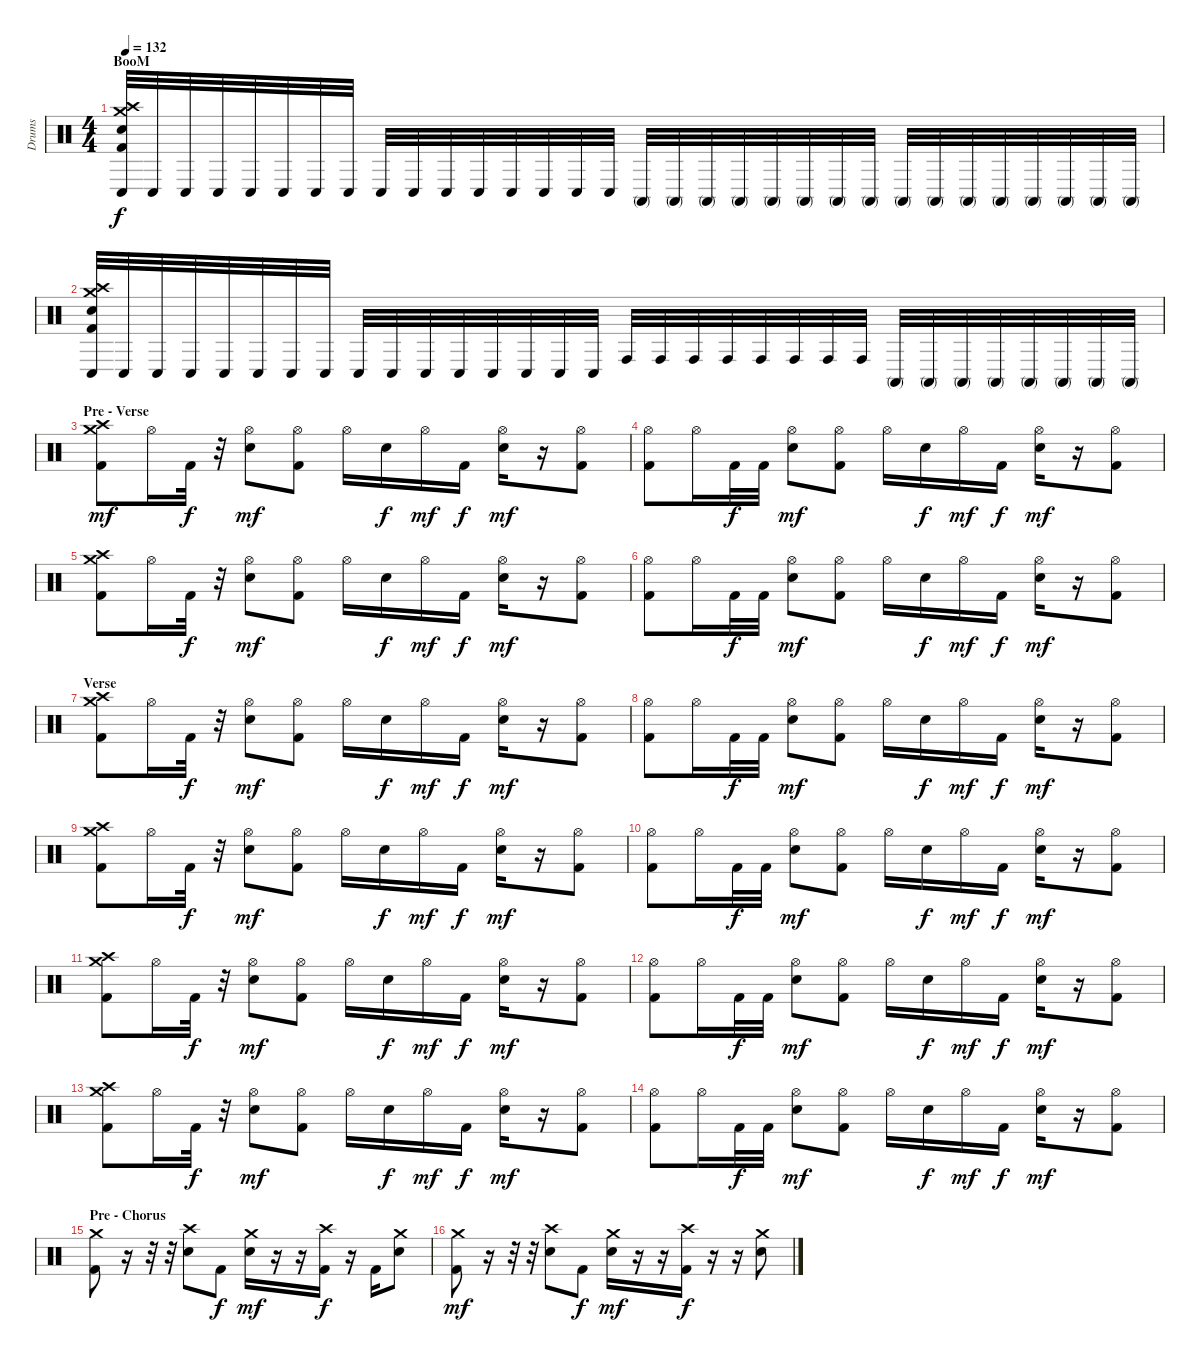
\track ("Drums" "Drums") {instrument percussion}
\staff {score}
\articulation defaults
\ts (4 4)
\section ("" "BooM")
\tempo 132
\clef neutral
\ks c
("Crash medium (hit)" "Crash high (hit)" "Snare (hit) 2" "Conga low (hit)" "Kick (hit) 2").32{dy f} "Conga low (hit)".32 "Conga low (hit)".32 "Conga low (hit)".32 "Conga low (hit)".32 "Conga low (hit)".32 "Conga low (hit)".32 "Conga low (hit)".32 "Conga low (hit)".32 "Conga low (hit)".32 "Conga low (hit)".32 "Conga low (hit)".32 "Conga low (hit)".32 "Conga low (hit)".32 "Conga low (hit)".32 "Conga low (hit)".32 "Conga high (mute)".32 "Conga high (mute)".32 "Conga high (mute)".32 "Conga high (mute)".32 "Conga high (mute)".32 "Conga high (mute)".32 "Conga high (mute)".32 "Conga high (mute)".32 "Conga high (mute)".32 "Conga high (mute)".32 "Conga high (mute)".32 "Conga high (mute)".32 "Conga high (mute)".32 "Conga high (mute)".32 "Conga high (mute)".32 "Conga high (mute)".32 |
("Crash medium (hit)" "Crash high (hit)" "Snare (hit) 2" "Conga low (hit)" "Kick (hit) 2").32 "Conga low (hit)".32 "Conga low (hit)".32 "Conga low (hit)".32 "Conga low (hit)".32 "Conga low (hit)".32 "Conga low (hit)".32 "Conga low (hit)".32 "Conga low (hit)".32 "Conga low (hit)".32 "Conga low (hit)".32 "Conga low (hit)".32 "Conga low (hit)".32 "Conga low (hit)".32 "Conga low (hit)".32 "Conga low (hit)".32 "Conga high (hit)".32 "Conga high (hit)".32 "Conga high (hit)".32 "Conga high (hit)".32 "Conga high (hit)".32 "Conga high (hit)".32 "Conga high (hit)".32 "Conga high (hit)".32 "Conga high (mute)".32 "Conga high (mute)".32 "Conga high (mute)".32 "Conga high (mute)".32 "Conga high (mute)".32 "Conga high (mute)".32 "Conga high (mute)".32 "Conga high (mute)".32 |
\section ("" "Pre - Verse")
("Crash high (hit)" "Crash medium (hit)" "Kick (hit) 2").8{dy mf} "Hi-Hat (open)".16 "Kick (hit) 2".32{dy f} r.32 ("Hi-Hat (open)" "Snare (hit) 2").8{dy mf} ("Hi-Hat (open)" "Kick (hit) 2").8 "Hi-Hat (open)".16 "Snare (hit) 2".16{dy f} "Hi-Hat (open)".16{dy mf} "Kick (hit) 2".16{dy f} ("Hi-Hat (open)" "Snare (hit) 2").16{dy mf} r.16 ("Hi-Hat (open)" "Kick (hit) 2").8 |
("Hi-Hat (open)" "Kick (hit) 2").8 "Hi-Hat (open)".16 "Kick (hit) 2".32{dy f} "Kick (hit) 2".32 ("Hi-Hat (open)" "Snare (hit) 2").8{dy mf} ("Hi-Hat (open)" "Kick (hit) 2").8 "Hi-Hat (open)".16 "Snare (hit) 2".16{dy f} "Hi-Hat (open)".16{dy mf} "Kick (hit) 2".16{dy f} ("Hi-Hat (open)" "Snare (hit) 2").16{dy mf} r.16 ("Hi-Hat (open)" "Kick (hit) 2").8 |
("Crash high (hit)" "Crash medium (hit)" "Kick (hit) 2").8 "Hi-Hat (open)".16 "Kick (hit) 2".32{dy f} r.32 ("Hi-Hat (open)" "Snare (hit) 2").8{dy mf} ("Hi-Hat (open)" "Kick (hit) 2").8 "Hi-Hat (open)".16 "Snare (hit) 2".16{dy f} "Hi-Hat (open)".16{dy mf} "Kick (hit) 2".16{dy f} ("Hi-Hat (open)" "Snare (hit) 2").16{dy mf} r.16 ("Hi-Hat (open)" "Kick (hit) 2").8 |
("Hi-Hat (open)" "Kick (hit) 2").8 "Hi-Hat (open)".16 "Kick (hit) 2".32{dy f} "Kick (hit) 2".32 ("Hi-Hat (open)" "Snare (hit) 2").8{dy mf} ("Hi-Hat (open)" "Kick (hit) 2").8 "Hi-Hat (open)".16 "Snare (hit) 2".16{dy f} "Hi-Hat (open)".16{dy mf} "Kick (hit) 2".16{dy f} ("Hi-Hat (open)" "Snare (hit) 2").16{dy mf} r.16 ("Hi-Hat (open)" "Kick (hit) 2").8 |
\section ("" "Verse")
("Crash high (hit)" "Crash medium (hit)" "Kick (hit) 2").8 "Hi-Hat (open)".16 "Kick (hit) 2".32{dy f} r.32 ("Hi-Hat (open)" "Snare (hit) 2").8{dy mf} ("Hi-Hat (open)" "Kick (hit) 2").8 "Hi-Hat (open)".16 "Snare (hit) 2".16{dy f} "Hi-Hat (open)".16{dy mf} "Kick (hit) 2".16{dy f} ("Hi-Hat (open)" "Snare (hit) 2").16{dy mf} r.16 ("Hi-Hat (open)" "Kick (hit) 2").8 |
("Hi-Hat (open)" "Kick (hit) 2").8 "Hi-Hat (open)".16 "Kick (hit) 2".32{dy f} "Kick (hit) 2".32 ("Hi-Hat (open)" "Snare (hit) 2").8{dy mf} ("Hi-Hat (open)" "Kick (hit) 2").8 "Hi-Hat (open)".16 "Snare (hit) 2".16{dy f} "Hi-Hat (open)".16{dy mf} "Kick (hit) 2".16{dy f} ("Hi-Hat (open)" "Snare (hit) 2").16{dy mf} r.16 ("Hi-Hat (open)" "Kick (hit) 2").8 |
("Crash high (hit)" "Crash medium (hit)" "Kick (hit) 2").8 "Hi-Hat (open)".16 "Kick (hit) 2".32{dy f} r.32 ("Hi-Hat (open)" "Snare (hit) 2").8{dy mf} ("Hi-Hat (open)" "Kick (hit) 2").8 "Hi-Hat (open)".16 "Snare (hit) 2".16{dy f} "Hi-Hat (open)".16{dy mf} "Kick (hit) 2".16{dy f} ("Hi-Hat (open)" "Snare (hit) 2").16{dy mf} r.16 ("Hi-Hat (open)" "Kick (hit) 2").8 |
("Hi-Hat (open)" "Kick (hit) 2").8 "Hi-Hat (open)".16 "Kick (hit) 2".32{dy f} "Kick (hit) 2".32 ("Hi-Hat (open)" "Snare (hit) 2").8{dy mf} ("Hi-Hat (open)" "Kick (hit) 2").8 "Hi-Hat (open)".16 "Snare (hit) 2".16{dy f} "Hi-Hat (open)".16{dy mf} "Kick (hit) 2".16{dy f} ("Hi-Hat (open)" "Snare (hit) 2").16{dy mf} r.16 ("Hi-Hat (open)" "Kick (hit) 2").8 |
("Crash high (hit)" "Crash medium (hit)" "Kick (hit) 2").8 "Hi-Hat (open)".16 "Kick (hit) 2".32{dy f} r.32 ("Hi-Hat (open)" "Snare (hit) 2").8{dy mf} ("Hi-Hat (open)" "Kick (hit) 2").8 "Hi-Hat (open)".16 "Snare (hit) 2".16{dy f} "Hi-Hat (open)".16{dy mf} "Kick (hit) 2".16{dy f} ("Hi-Hat (open)" "Snare (hit) 2").16{dy mf} r.16 ("Hi-Hat (open)" "Kick (hit) 2").8 |
("Hi-Hat (open)" "Kick (hit) 2").8 "Hi-Hat (open)".16 "Kick (hit) 2".32{dy f} "Kick (hit) 2".32 ("Hi-Hat (open)" "Snare (hit) 2").8{dy mf} ("Hi-Hat (open)" "Kick (hit) 2").8 "Hi-Hat (open)".16 "Snare (hit) 2".16{dy f} "Hi-Hat (open)".16{dy mf} "Kick (hit) 2".16{dy f} ("Hi-Hat (open)" "Snare (hit) 2").16{dy mf} r.16 ("Hi-Hat (open)" "Kick (hit) 2").8 |
("Crash high (hit)" "Crash medium (hit)" "Kick (hit) 2").8 "Hi-Hat (open)".16 "Kick (hit) 2".32{dy f} r.32 ("Hi-Hat (open)" "Snare (hit) 2").8{dy mf} ("Hi-Hat (open)" "Kick (hit) 2").8 "Hi-Hat (open)".16 "Snare (hit) 2".16{dy f} "Hi-Hat (open)".16{dy mf} "Kick (hit) 2".16{dy f} ("Hi-Hat (open)" "Snare (hit) 2").16{dy mf} r.16 ("Hi-Hat (open)" "Kick (hit) 2").8 |
("Hi-Hat (open)" "Kick (hit) 2").8 "Hi-Hat (open)".16 "Kick (hit) 2".32{dy f} "Kick (hit) 2".32 ("Hi-Hat (open)" "Snare (hit) 2").8{dy mf} ("Hi-Hat (open)" "Kick (hit) 2").8 "Hi-Hat (open)".16 "Snare (hit) 2".16{dy f} "Hi-Hat (open)".16{dy mf} "Kick (hit) 2".16{dy f} ("Hi-Hat (open)" "Snare (hit) 2").16{dy mf} r.16 ("Hi-Hat (open)" "Kick (hit) 2").8 |
\section ("" "Pre - Chorus")
("Crash medium (hit)" "Kick (hit) 2").8 r.16 r.32 r.32 ("Crash high (hit)" "Snare (hit) 2").8 "Kick (hit) 2".8{dy f} ("Crash medium (hit)" "Snare (hit) 2").16{dy mf} r.16 r.16 ("Crash high (hit)" "Kick (hit) 2").16{dy f} r.16 "Kick (hit) 2".16 ("Crash medium (hit)" "Snare (hit) 2").8 |
("Crash medium (hit)" "Kick (hit) 2").8{dy mf} r.16 r.32 r.32 ("Crash high (hit)" "Snare (hit) 2").8 "Kick (hit) 2".8{dy f} ("Crash medium (hit)" "Snare (hit) 2").16{dy mf} r.16 r.16 ("Crash high (hit)" "Kick (hit) 2").16{dy f} r.16 r.16 ("Crash medium (hit)" "Snare (hit) 2").8
